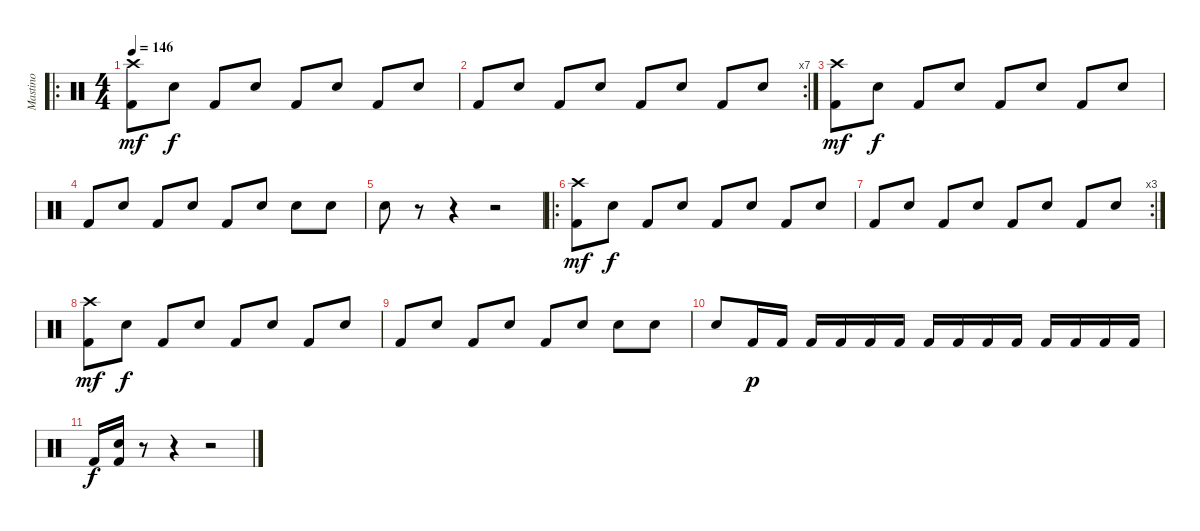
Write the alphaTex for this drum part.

\track ("Mastino" "Mastino") {instrument percussion}
\staff {score}
\articulation defaults
\ro
\ts (4 4)
\tempo 146
\clef neutral
\ks c
("Crash high (hit)" "Kick (hit) 2").8{dy mf} "Electric Snare (hit)".8{dy f} "Kick (hit) 2".8 "Electric Snare (hit)".8 "Kick (hit) 2".8 "Electric Snare (hit)".8 "Kick (hit) 2".8 "Electric Snare (hit)".8 |
\rc 7 "Kick (hit) 2".8 "Electric Snare (hit)".8 "Kick (hit) 2".8 "Electric Snare (hit)".8 "Kick (hit) 2".8 "Electric Snare (hit)".8 "Kick (hit) 2".8 "Electric Snare (hit)".8
|
("Crash high (hit)" "Kick (hit) 2").8{dy mf} "Electric Snare (hit)".8{dy f} "Kick (hit) 2".8 "Electric Snare (hit)".8 "Kick (hit) 2".8 "Electric Snare (hit)".8 "Kick (hit) 2".8 "Electric Snare (hit)".8 |
"Kick (hit) 2".8 "Electric Snare (hit)".8 "Kick (hit) 2".8 "Electric Snare (hit)".8 "Kick (hit) 2".8 "Electric Snare (hit)".8 "Electric Snare (hit)".8 "Electric Snare (hit)".8 |
"Electric Snare (hit)".8 r.8 r.4 r.2 |
\ro
("Crash high (hit)" "Kick (hit) 2").8{dy mf} "Electric Snare (hit)".8{dy f} "Kick (hit) 2".8 "Electric Snare (hit)".8 "Kick (hit) 2".8 "Electric Snare (hit)".8 "Kick (hit) 2".8 "Electric Snare (hit)".8 |
\rc 3 "Kick (hit) 2".8 "Electric Snare (hit)".8 "Kick (hit) 2".8 "Electric Snare (hit)".8 "Kick (hit) 2".8 "Electric Snare (hit)".8 "Kick (hit) 2".8 "Electric Snare (hit)".8
|
("Crash high (hit)" "Kick (hit) 2").8{dy mf} "Electric Snare (hit)".8{dy f} "Kick (hit) 2".8 "Electric Snare (hit)".8 "Kick (hit) 2".8 "Electric Snare (hit)".8 "Kick (hit) 2".8 "Electric Snare (hit)".8 |
"Kick (hit) 2".8 "Electric Snare (hit)".8 "Kick (hit) 2".8 "Electric Snare (hit)".8 "Kick (hit) 2".8 "Electric Snare (hit)".8 "Electric Snare (hit)".8 "Electric Snare (hit)".8 |
"Electric Snare (hit)".8 "Kick (hit) 2".16{dy p} "Kick (hit) 2".16 "Kick (hit) 2".16 "Kick (hit) 2".16 "Kick (hit) 2".16 "Kick (hit) 2".16 "Kick (hit) 2".16 "Kick (hit) 2".16 "Kick (hit) 2".16 "Kick (hit) 2".16 "Kick (hit) 2".16 "Kick (hit) 2".16 "Kick (hit) 2".16 "Kick (hit) 2".16 |
"Kick (hit) 2".16{dy f} ("Electric Snare (hit)" "Kick (hit) 2").16 r.8 r.4 r.2
